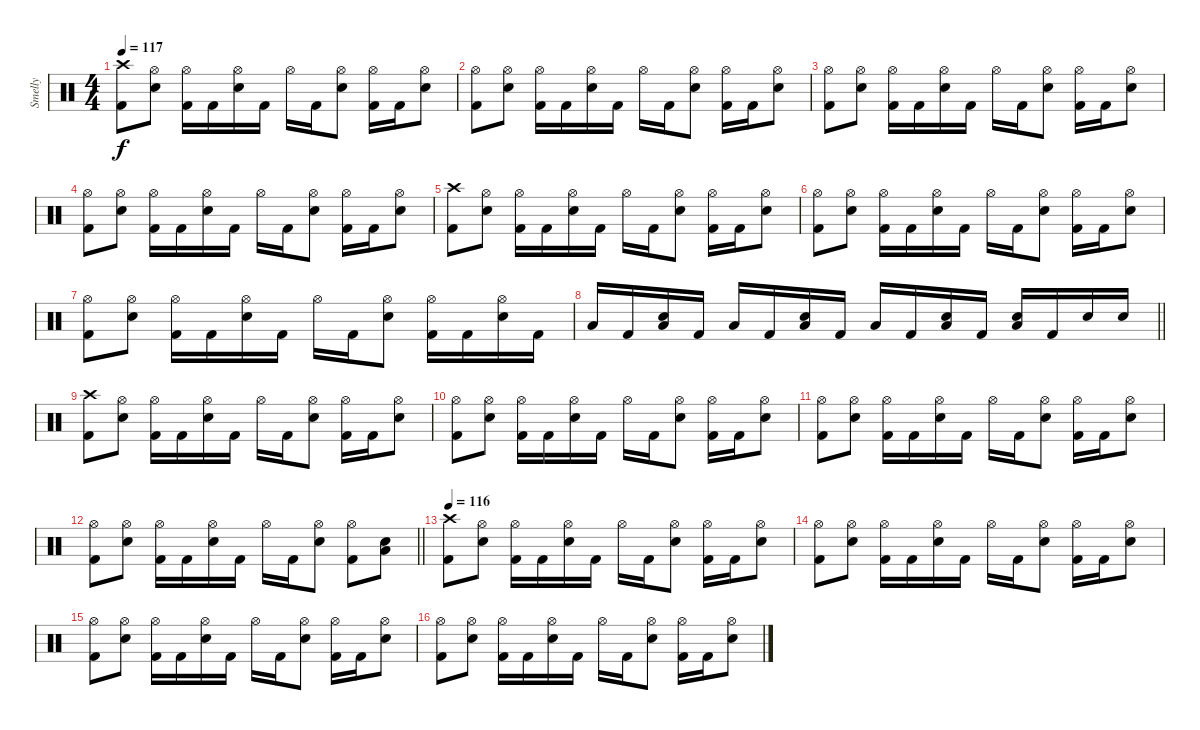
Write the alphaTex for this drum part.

\track ("Smelly" "Smelly") {instrument percussion}
\staff {score}
\articulation defaults
\ts (4 4)
\section ("" "")
\tempo 117
\clef neutral
\ks c
("Crash high (hit)" "Kick (hit) 2").8{dy f} ("Hi-Hat (open)" "Electric Snare (hit)").8 ("Hi-Hat (open)" "Kick (hit) 2").16 "Kick (hit) 2".16 ("Hi-Hat (open)" "Electric Snare (hit)").16 "Kick (hit) 2".16 "Hi-Hat (open)".16 "Kick (hit) 2".16 ("Hi-Hat (open)" "Electric Snare (hit)").8 ("Hi-Hat (open)" "Kick (hit) 2").16 "Kick (hit) 2".16 ("Hi-Hat (open)" "Electric Snare (hit)").8 |
("Hi-Hat (open)" "Kick (hit) 2").8 ("Hi-Hat (open)" "Electric Snare (hit)").8 ("Hi-Hat (open)" "Kick (hit) 2").16 "Kick (hit) 2".16 ("Hi-Hat (open)" "Electric Snare (hit)").16 "Kick (hit) 2".16 "Hi-Hat (open)".16 "Kick (hit) 2".16 ("Hi-Hat (open)" "Electric Snare (hit)").8 ("Hi-Hat (open)" "Kick (hit) 2").16 "Kick (hit) 2".16 ("Hi-Hat (open)" "Electric Snare (hit)").8 |
("Hi-Hat (open)" "Kick (hit) 2").8 ("Hi-Hat (open)" "Electric Snare (hit)").8 ("Hi-Hat (open)" "Kick (hit) 2").16 "Kick (hit) 2".16 ("Hi-Hat (open)" "Electric Snare (hit)").16 "Kick (hit) 2".16 "Hi-Hat (open)".16 "Kick (hit) 2".16 ("Hi-Hat (open)" "Electric Snare (hit)").8 ("Hi-Hat (open)" "Kick (hit) 2").16 "Kick (hit) 2".16 ("Hi-Hat (open)" "Electric Snare (hit)").8 |
("Hi-Hat (open)" "Kick (hit) 2").8 ("Hi-Hat (open)" "Electric Snare (hit)").8 ("Hi-Hat (open)" "Kick (hit) 2").16 "Kick (hit) 2".16 ("Hi-Hat (open)" "Electric Snare (hit)").16 "Kick (hit) 2".16 "Hi-Hat (open)".16 "Kick (hit) 2".16 ("Hi-Hat (open)" "Electric Snare (hit)").8 ("Hi-Hat (open)" "Kick (hit) 2").16 "Kick (hit) 2".16 ("Hi-Hat (open)" "Electric Snare (hit)").8 |
("Crash high (hit)" "Kick (hit) 2").8 ("Hi-Hat (open)" "Electric Snare (hit)").8 ("Hi-Hat (open)" "Kick (hit) 2").16 "Kick (hit) 2".16 ("Hi-Hat (open)" "Electric Snare (hit)").16 "Kick (hit) 2".16 "Hi-Hat (open)".16 "Kick (hit) 2".16 ("Hi-Hat (open)" "Electric Snare (hit)").8 ("Hi-Hat (open)" "Kick (hit) 2").16 "Kick (hit) 2".16 ("Hi-Hat (open)" "Electric Snare (hit)").8 |
("Hi-Hat (open)" "Kick (hit) 2").8 ("Hi-Hat (open)" "Electric Snare (hit)").8 ("Hi-Hat (open)" "Kick (hit) 2").16 "Kick (hit) 2".16 ("Hi-Hat (open)" "Electric Snare (hit)").16 "Kick (hit) 2".16 "Hi-Hat (open)".16 "Kick (hit) 2".16 ("Hi-Hat (open)" "Electric Snare (hit)").8 ("Hi-Hat (open)" "Kick (hit) 2").16 "Kick (hit) 2".16 ("Hi-Hat (open)" "Electric Snare (hit)").8 |
("Hi-Hat (open)" "Kick (hit) 2").8 ("Hi-Hat (open)" "Electric Snare (hit)").8 ("Hi-Hat (open)" "Kick (hit) 2").16 "Kick (hit) 2".16 ("Hi-Hat (open)" "Electric Snare (hit)").16 "Kick (hit) 2".16 "Hi-Hat (open)".16 "Kick (hit) 2".16 ("Hi-Hat (open)" "Electric Snare (hit)").8 ("Hi-Hat (open)" "Kick (hit) 2").16 "Kick (hit) 2".16 ("Hi-Hat (open)" "Electric Snare (hit)").16 "Kick (hit) 2".16 |
\barLineRight lightlight "Low Floor Tom (hit)".16 "Kick (hit) 2".16
("Electric Snare (hit)" "Low Floor Tom (hit)").16 "Kick (hit) 2".16 "Low Floor Tom (hit)".16 "Kick (hit) 2".16 ("Electric Snare (hit)" "Low Floor Tom (hit)").16 "Kick (hit) 2".16 "Low Floor Tom (hit)".16 "Kick (hit) 2".16 ("Electric Snare (hit)" "Low Floor Tom (hit)").16 "Kick (hit) 2".16 ("Electric Snare (hit)" "Low Floor Tom (hit)").16 "Kick (hit) 2".16 "Electric Snare (hit)".16 "Electric Snare (hit)".16 |
\section ("" "")
("Crash high (hit)" "Kick (hit) 2").8 ("Hi-Hat (open)" "Electric Snare (hit)").8 ("Hi-Hat (open)" "Kick (hit) 2").16 "Kick (hit) 2".16 ("Hi-Hat (open)" "Electric Snare (hit)").16 "Kick (hit) 2".16 "Hi-Hat (open)".16 "Kick (hit) 2".16 ("Hi-Hat (open)" "Electric Snare (hit)").8 ("Hi-Hat (open)" "Kick (hit) 2").16 "Kick (hit) 2".16 ("Hi-Hat (open)" "Electric Snare (hit)").8 |
("Hi-Hat (open)" "Kick (hit) 2").8 ("Hi-Hat (open)" "Electric Snare (hit)").8 ("Hi-Hat (open)" "Kick (hit) 2").16 "Kick (hit) 2".16 ("Hi-Hat (open)" "Electric Snare (hit)").16 "Kick (hit) 2".16 "Hi-Hat (open)".16 "Kick (hit) 2".16 ("Hi-Hat (open)" "Electric Snare (hit)").8 ("Hi-Hat (open)" "Kick (hit) 2").16 "Kick (hit) 2".16 ("Hi-Hat (open)" "Electric Snare (hit)").8 |
("Hi-Hat (open)" "Kick (hit) 2").8 ("Hi-Hat (open)" "Electric Snare (hit)").8 ("Hi-Hat (open)" "Kick (hit) 2").16 "Kick (hit) 2".16 ("Hi-Hat (open)" "Electric Snare (hit)").16 "Kick (hit) 2".16 "Hi-Hat (open)".16 "Kick (hit) 2".16 ("Hi-Hat (open)" "Electric Snare (hit)").8 ("Hi-Hat (open)" "Kick (hit) 2").16 "Kick (hit) 2".16 ("Hi-Hat (open)" "Electric Snare (hit)").8 |
\barLineRight lightlight
("Hi-Hat (open)" "Kick (hit) 2").8 ("Hi-Hat (open)" "Electric Snare (hit)").8 ("Hi-Hat (open)" "Kick (hit) 2").16 "Kick (hit) 2".16 ("Hi-Hat (open)" "Electric Snare (hit)").16 "Kick (hit) 2".16 "Hi-Hat (open)".16 "Kick (hit) 2".16 ("Hi-Hat (open)" "Electric Snare (hit)").8 ("Hi-Hat (open)" "Kick (hit) 2").8 ("Electric Snare (hit)" "Low Floor Tom (hit)").8 |
\section ("" "")
\tempo 116
("Crash high (hit)" "Kick (hit) 2").8 ("Hi-Hat (open)" "Electric Snare (hit)").8 ("Hi-Hat (open)" "Kick (hit) 2").16 "Kick (hit) 2".16 ("Hi-Hat (open)" "Electric Snare (hit)").16 "Kick (hit) 2".16 "Hi-Hat (open)".16 "Kick (hit) 2".16 ("Hi-Hat (open)" "Electric Snare (hit)").8 ("Hi-Hat (open)" "Kick (hit) 2").16 "Kick (hit) 2".16 ("Hi-Hat (open)" "Electric Snare (hit)").8 |
("Hi-Hat (open)" "Kick (hit) 2").8 ("Hi-Hat (open)" "Electric Snare (hit)").8 ("Hi-Hat (open)" "Kick (hit) 2").16 "Kick (hit) 2".16 ("Hi-Hat (open)" "Electric Snare (hit)").16 "Kick (hit) 2".16 "Hi-Hat (open)".16 "Kick (hit) 2".16 ("Hi-Hat (open)" "Electric Snare (hit)").8 ("Hi-Hat (open)" "Kick (hit) 2").16 "Kick (hit) 2".16 ("Hi-Hat (open)" "Electric Snare (hit)").8 |
("Hi-Hat (open)" "Kick (hit) 2").8 ("Hi-Hat (open)" "Electric Snare (hit)").8 ("Hi-Hat (open)" "Kick (hit) 2").16 "Kick (hit) 2".16 ("Hi-Hat (open)" "Electric Snare (hit)").16 "Kick (hit) 2".16 "Hi-Hat (open)".16 "Kick (hit) 2".16 ("Hi-Hat (open)" "Electric Snare (hit)").8 ("Hi-Hat (open)" "Kick (hit) 2").16 "Kick (hit) 2".16 ("Hi-Hat (open)" "Electric Snare (hit)").8 |
("Hi-Hat (open)" "Kick (hit) 2").8 ("Hi-Hat (open)" "Electric Snare (hit)").8 ("Hi-Hat (open)" "Kick (hit) 2").16 "Kick (hit) 2".16 ("Hi-Hat (open)" "Electric Snare (hit)").16 "Kick (hit) 2".16 "Hi-Hat (open)".16 "Kick (hit) 2".16 ("Hi-Hat (open)" "Electric Snare (hit)").8 ("Hi-Hat (open)" "Kick (hit) 2").16 "Kick (hit) 2".16 ("Hi-Hat (open)" "Electric Snare (hit)").8
